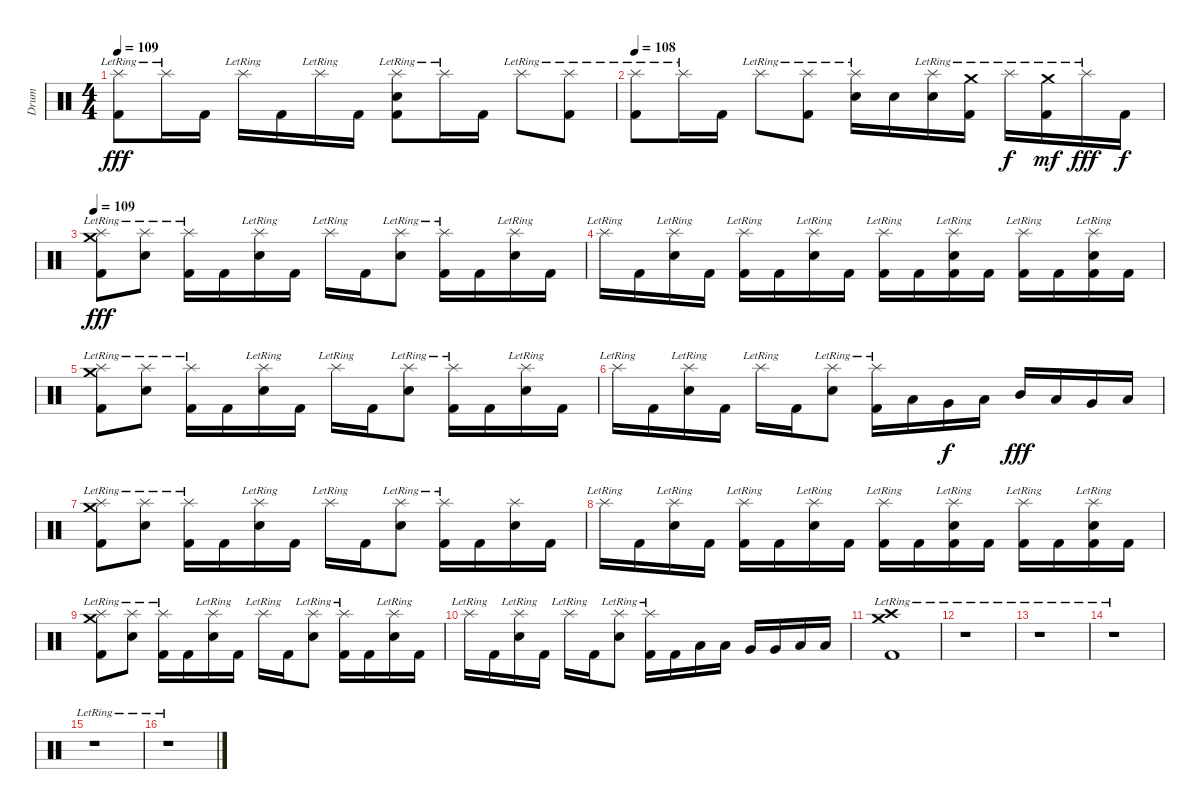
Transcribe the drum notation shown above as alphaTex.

\track ("Drum" "Drum") {instrument percussion}
\staff {score}
\articulation defaults
\ts (4 4)
\tempo 109
\clef neutral
\ks c
("Splash (hit)"{lr} "Kick (hit) 2").8{dy fff} "Splash (hit)"{lr}.16 "Kick (hit) 2".16 "Splash (hit)"{lr}.16 "Kick (hit) 2".16 "Splash (hit)"{lr}.16 "Kick (hit) 2".16 ("Splash (hit)"{lr} "Electric Snare (hit)" "Kick (hit) 2").8 "Splash (hit)"{lr}.16 "Kick (hit) 2".16 "Splash (hit)"{lr}.8 ("Splash (hit)"{lr} "Kick (hit) 2").8 |
\tempo 108
("Splash (hit)"{lr} "Kick (hit) 2").8 "Splash (hit)"{lr}.16 "Kick (hit) 2".16 "Splash (hit)"{lr}.8 ("Splash (hit)"{lr} "Kick (hit) 2").8 ("Splash (hit)"{lr} "Electric Snare (hit)").16 "Electric Snare (hit)".16 ("Splash (hit)"{lr} "Electric Snare (hit)").16 ("Crash medium (hit)"{lr} "Kick (hit) 2").16 "Splash (hit)"{lr}.16{dy f} ("Crash medium (hit)"{lr} "Kick (hit) 2").16{dy mf} "Splash (hit)"{lr}.16{dy fff} "Kick (hit) 2".16{dy f} |
\tempo 109
("Crash medium (hit)"{lr} "Splash (hit)"{lr} "Kick (hit) 2").8{dy fff} ("Splash (hit)"{lr} "Electric Snare (hit)").8 ("Splash (hit)"{lr} "Kick (hit) 2").16 "Kick (hit) 2".16 ("Splash (hit)"{lr} "Electric Snare (hit)").16 "Kick (hit) 2".16 "Splash (hit)"{lr}.16 "Kick (hit) 2".16 ("Splash (hit)"{lr} "Electric Snare (hit)").8 ("Splash (hit)"{lr} "Kick (hit) 2").16 "Kick (hit) 2".16 ("Splash (hit)"{lr} "Electric Snare (hit)").16 "Kick (hit) 2".16 |
"Splash (hit)"{lr}.16 "Kick (hit) 2".16 ("Splash (hit)"{lr} "Electric Snare (hit)").16 "Kick (hit) 2".16 ("Splash (hit)"{lr} "Kick (hit) 2").16 "Kick (hit) 2".16 ("Splash (hit)"{lr} "Electric Snare (hit)").16 "Kick (hit) 2".16 ("Splash (hit)"{lr} "Kick (hit) 2").16 "Kick (hit) 2".16 ("Splash (hit)"{lr} "Electric Snare (hit)" "Kick (hit) 2").16 "Kick (hit) 2".16 ("Splash (hit)"{lr} "Kick (hit) 2").16 "Kick (hit) 2".16 ("Splash (hit)"{lr} "Electric Snare (hit)" "Kick (hit) 2").16 "Kick (hit) 2".16 |
("Crash medium (hit)"{lr} "Splash (hit)"{lr} "Kick (hit) 2").8 ("Splash (hit)"{lr} "Electric Snare (hit)").8 ("Splash (hit)"{lr} "Kick (hit) 2").16 "Kick (hit) 2".16 ("Splash (hit)"{lr} "Electric Snare (hit)").16 "Kick (hit) 2".16 "Splash (hit)"{lr}.16 "Kick (hit) 2".16 ("Splash (hit)"{lr} "Electric Snare (hit)").8 ("Splash (hit)"{lr} "Kick (hit) 2").16 "Kick (hit) 2".16 ("Splash (hit)"{lr} "Electric Snare (hit)").16 "Kick (hit) 2".16 |
"Splash (hit)"{lr}.16 "Kick (hit) 2".16 ("Splash (hit)"{lr} "Electric Snare (hit)").16 "Kick (hit) 2".16 "Splash (hit)"{lr}.16 "Kick (hit) 2".16 ("Splash (hit)"{lr} "Electric Snare (hit)").8 ("Splash (hit)"{lr} "Kick (hit) 2").16 "Low Tom (hit)".16 "Very Low Tom (hit)".16{dy f} "Low Floor Tom (hit)".16 "Mid Tom (hit)".16{dy fff} "Low Tom (hit)".16 "Very Low Tom (hit)".16 "Low Floor Tom (hit)".16 |
("Crash medium (hit)"{lr} "Splash (hit)"{lr} "Kick (hit) 2").8 ("Splash (hit)"{lr} "Electric Snare (hit)").8 ("Splash (hit)"{lr} "Kick (hit) 2").16 "Kick (hit) 2".16 ("Splash (hit)"{lr} "Electric Snare (hit)").16 "Kick (hit) 2".16 "Splash (hit)"{lr}.16 "Kick (hit) 2".16 ("Splash (hit)"{lr} "Electric Snare (hit)").8 ("Splash (hit)"{lr} "Kick (hit) 2").16 "Kick (hit) 2".16 ("Splash (hit)" "Electric Snare (hit)").16 "Kick (hit) 2".16 |
"Splash (hit)"{lr}.16 "Kick (hit) 2".16 ("Splash (hit)"{lr} "Electric Snare (hit)").16 "Kick (hit) 2".16 ("Splash (hit)"{lr} "Kick (hit) 2").16 "Kick (hit) 2".16 ("Splash (hit)"{lr} "Electric Snare (hit)").16 "Kick (hit) 2".16 ("Splash (hit)"{lr} "Kick (hit) 2").16 "Kick (hit) 2".16 ("Splash (hit)"{lr} "Electric Snare (hit)" "Kick (hit) 2").16 "Kick (hit) 2".16 ("Splash (hit)"{lr} "Kick (hit) 2").16 "Kick (hit) 2".16 ("Splash (hit)"{lr} "Electric Snare (hit)" "Kick (hit) 2").16 "Kick (hit) 2".16 |
("Crash medium (hit)"{lr} "Splash (hit)"{lr} "Kick (hit) 2").8 ("Splash (hit)"{lr} "Electric Snare (hit)").8 ("Splash (hit)"{lr} "Kick (hit) 2").16 "Kick (hit) 2".16 ("Splash (hit)"{lr} "Electric Snare (hit)").16 "Kick (hit) 2".16 "Splash (hit)"{lr}.16 "Kick (hit) 2".16 ("Splash (hit)"{lr} "Electric Snare (hit)").8 ("Splash (hit)"{lr} "Kick (hit) 2").16 "Kick (hit) 2".16 ("Splash (hit)"{lr} "Electric Snare (hit)").16 "Kick (hit) 2".16 |
"Splash (hit)"{lr}.16 "Kick (hit) 2".16 ("Splash (hit)"{lr} "Electric Snare (hit)").16 "Kick (hit) 2".16 "Splash (hit)"{lr}.16 "Kick (hit) 2".16 ("Splash (hit)"{lr} "Electric Snare (hit)").8 ("Splash (hit)"{lr} "Kick (hit) 2").16 "Kick (hit) 2".16 "Low Tom (hit)".16 "Low Tom (hit)".16 "Very Low Tom (hit)".16 "Very Low Tom (hit)".16 "Low Floor Tom (hit)".16 "Low Floor Tom (hit)".16 |
("Crash high (hit)" "Crash medium (hit)"{lr} "Kick (hit) 2").1 |
r.1 |
r.1 |
r.1 |
r.1 |
r.1
